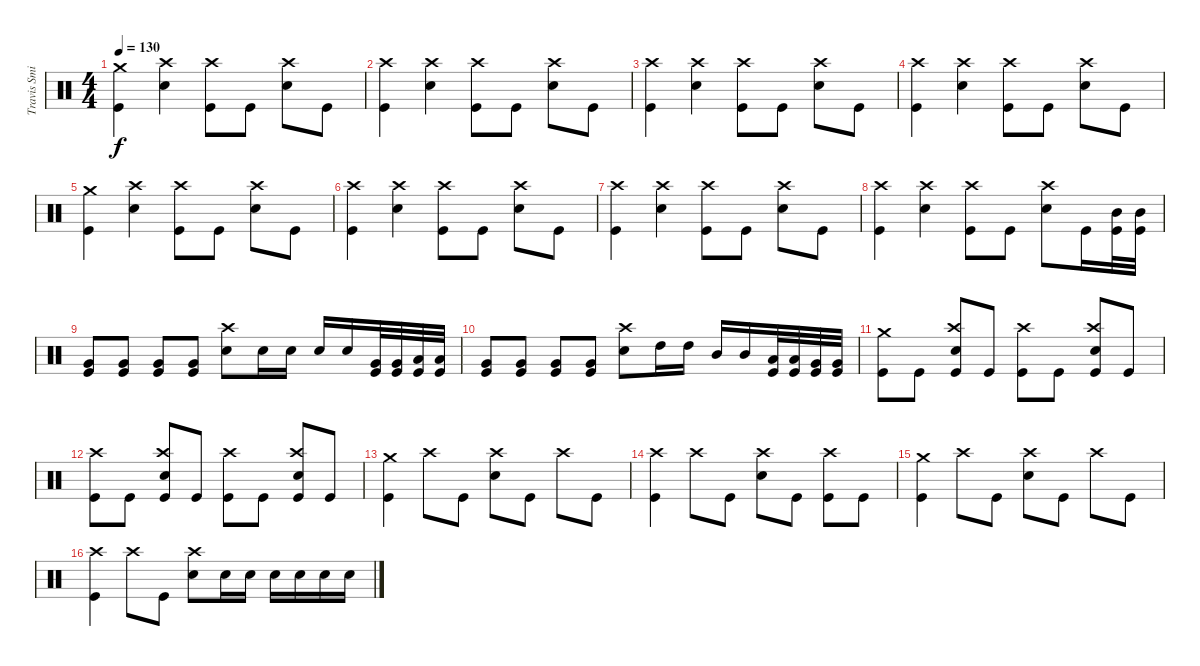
\track ("Travis Smith" "Travis Smi") {instrument percussion}
\staff {score}
\articulation defaults
\ts (4 4)
\tempo 130
\clef neutral
\ks c
("Crash medium (hit)" "Kick (hit)").4{dy f} ("Crash high (hit)" "Snare (hit) 2").4 ("Crash high (hit)" "Kick (hit)").8 "Kick (hit)".8 ("Crash high (hit)" "Snare (hit) 2").8 "Kick (hit)".8 |
("Crash high (hit)" "Kick (hit)").4 ("Crash high (hit)" "Snare (hit) 2").4 ("Crash high (hit)" "Kick (hit)").8 "Kick (hit)".8 ("Crash high (hit)" "Snare (hit) 2").8 "Kick (hit)".8 |
("Crash high (hit)" "Kick (hit)").4 ("Crash high (hit)" "Snare (hit) 2").4 ("Crash high (hit)" "Kick (hit)").8 "Kick (hit)".8 ("Crash high (hit)" "Snare (hit) 2").8 "Kick (hit)".8 |
("Crash high (hit)" "Kick (hit)").4 ("Crash high (hit)" "Snare (hit) 2").4 ("Crash high (hit)" "Kick (hit)").8 "Kick (hit)".8 ("Crash high (hit)" "Snare (hit) 2").8 "Kick (hit)".8 |
("Crash medium (hit)" "Kick (hit)").4 ("Crash high (hit)" "Snare (hit) 2").4 ("Crash high (hit)" "Kick (hit)").8 "Kick (hit)".8 ("Crash high (hit)" "Snare (hit) 2").8 "Kick (hit)".8 |
("Crash high (hit)" "Kick (hit)").4 ("Crash high (hit)" "Snare (hit) 2").4 ("Crash high (hit)" "Kick (hit)").8 "Kick (hit)".8 ("Crash high (hit)" "Snare (hit) 2").8 "Kick (hit)".8 |
("Crash high (hit)" "Kick (hit)").4 ("Crash high (hit)" "Snare (hit) 2").4 ("Crash high (hit)" "Kick (hit)").8 "Kick (hit)".8 ("Crash high (hit)" "Snare (hit) 2").8 "Kick (hit)".8 |
("Crash high (hit)" "Kick (hit)").4 ("Crash high (hit)" "Snare (hit) 2").4 ("Crash high (hit)" "Kick (hit)").8 "Kick (hit)".8 ("Crash high (hit)" "Snare (hit) 2").8 "Kick (hit)".16 ("Mid Tom (hit)" "Kick (hit)").32 ("Mid Tom (hit)" "Kick (hit)").32 |
("Very Low Tom (hit)" "Kick (hit)").8 ("Very Low Tom (hit)" "Kick (hit)").8 ("Very Low Tom (hit)" "Kick (hit)").8 ("Very Low Tom (hit)" "Kick (hit)").8 ("Crash high (hit)" "Snare (hit) 2").8 "Snare (hit) 2".16 "Snare (hit) 2".16 "Snare (hit) 2".16 "Snare (hit) 2".16 ("Very Low Tom (hit)" "Kick (hit)").32 ("Very Low Tom (hit)" "Kick (hit)").32 ("Low Floor Tom (hit)" "Kick (hit)").32 ("Low Floor Tom (hit)" "Kick (hit)").32 |
("Very Low Tom (hit)" "Kick (hit)").8 ("Very Low Tom (hit)" "Kick (hit)").8 ("Very Low Tom (hit)" "Kick (hit)").8 ("Very Low Tom (hit)" "Kick (hit)").8 ("Crash high (hit)" "Snare (hit) 2").8 "High Tom (hit)".16 "High Tom (hit)".16 "Mid Tom (hit)".16 "Mid Tom (hit)".16 ("Low Tom (hit)" "Kick (hit)").32 ("Low Tom (hit)" "Kick (hit)").32 ("Very Low Tom (hit)" "Kick (hit)").32 ("Very Low Tom (hit)" "Kick (hit)").32 |
("Crash medium (hit)" "Kick (hit)").8 "Kick (hit)".8 ("Crash high (hit)" "Snare (hit) 2" "Kick (hit)").8 "Kick (hit)".8 ("Crash high (hit)" "Kick (hit)").8 "Kick (hit)".8 ("Crash high (hit)" "Snare (hit) 2" "Kick (hit)").8 "Kick (hit)".8 |
("Crash high (hit)" "Kick (hit)").8 "Kick (hit)".8 ("Crash high (hit)" "Snare (hit) 2" "Kick (hit)").8 "Kick (hit)".8 ("Crash high (hit)" "Kick (hit)").8 "Kick (hit)".8 ("Crash high (hit)" "Snare (hit) 2" "Kick (hit)").8 "Kick (hit)".8 |
("Crash medium (hit)" "Kick (hit)").4 "Crash high (hit)".8 "Kick (hit)".8 ("Crash high (hit)" "Snare (hit) 2").8 "Kick (hit)".8 "Crash high (hit)".8 "Kick (hit)".8 |
("Crash high (hit)" "Kick (hit)").4 "Crash high (hit)".8 "Kick (hit)".8 ("Crash high (hit)" "Snare (hit) 2").8 "Kick (hit)".8 ("Crash high (hit)" "Kick (hit)").8 "Kick (hit)".8 |
("Crash medium (hit)" "Kick (hit)").4 "Crash high (hit)".8 "Kick (hit)".8 ("Crash high (hit)" "Snare (hit) 2").8 "Kick (hit)".8 "Crash high (hit)".8 "Kick (hit)".8 |
("Crash high (hit)" "Kick (hit)").4 "Crash high (hit)".8 "Kick (hit)".8 ("Crash high (hit)" "Snare (hit) 2").8 "Snare (hit) 2".16 "Snare (hit) 2".16 "Snare (hit) 2".16 "Snare (hit) 2".16 "Snare (hit) 2".16 "Snare (hit) 2".16
